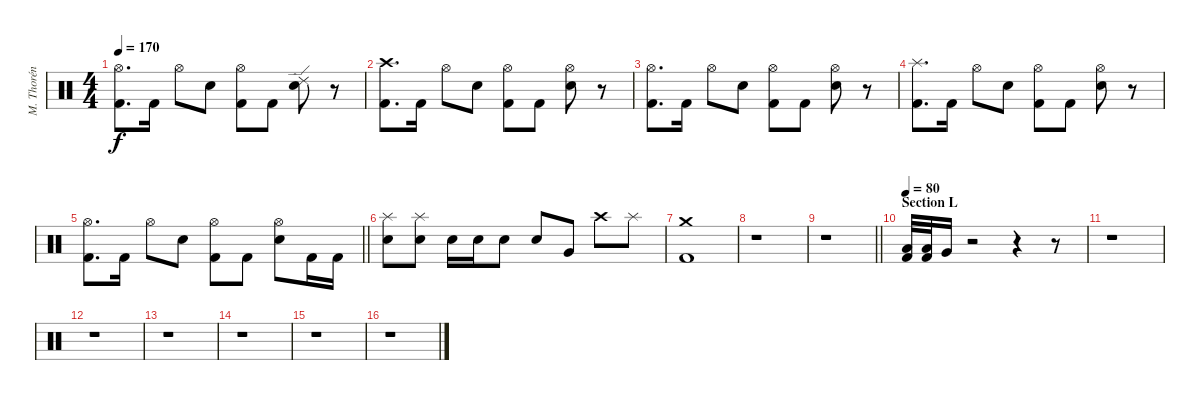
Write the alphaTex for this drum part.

\track ("M. Thorén (Drums)" "M. Thorén ") {instrument percussion}
\staff {score}
\articulation defaults
\ts (4 4)
\tempo 170
\clef neutral
\ks aminor
("Hi-Hat (open)" "Kick (hit) 2").8{d dy f} "Kick (hit) 2".16 "Hi-Hat (open)".8 "Electric Snare (hit)".8 ("Hi-Hat (open)" "Kick (hit) 2").8 "Kick (hit) 2".8 ("Ride (edge) 2" "Electric Snare (hit)").8 r.8 |
("Crash high (hit)" "Kick (hit) 2").8{d} "Kick (hit) 2".16 "Hi-Hat (open)".8 "Electric Snare (hit)".8 ("Hi-Hat (open)" "Kick (hit) 2").8 "Kick (hit) 2".8 ("Hi-Hat (open)" "Electric Snare (hit)").8 r.8 |
("Hi-Hat (open)" "Kick (hit) 2").8{d} "Kick (hit) 2".16 "Hi-Hat (open)".8 "Electric Snare (hit)".8 ("Hi-Hat (open)" "Kick (hit) 2").8 "Kick (hit) 2".8 ("Hi-Hat (open)" "Electric Snare (hit)").8 r.8 |
("Splash (hit)" "Kick (hit) 2").8{d} "Kick (hit) 2".16 "Hi-Hat (open)".8 "Electric Snare (hit)".8 ("Hi-Hat (open)" "Kick (hit) 2").8 "Kick (hit) 2".8 ("Hi-Hat (open)" "Electric Snare (hit)").8 r.8 |
\barLineRight lightlight
("Hi-Hat (open)" "Kick (hit) 2").8{d} "Kick (hit) 2".16 "Hi-Hat (open)".8 "Electric Snare (hit)".8 ("Hi-Hat (open)" "Kick (hit) 2").8 "Kick (hit) 2".8 ("Hi-Hat (open)" "Electric Snare (hit)").8 "Kick (hit) 2".16 "Kick (hit) 2".16 |
("Splash (hit)" "Electric Snare (hit)").8 ("Splash (hit)" "Electric Snare (hit)").8 "Electric Snare (hit)".16 "Electric Snare (hit)".16 "Electric Snare (hit)".8 "Electric Snare (hit)".8 "Very Low Tom (hit)".8 "Crash high (hit)".8 "Splash (hit)".8 |
("Crash medium (hit)" "Kick (hit) 2").1 |
r.1 |
\barLineRight lightlight
r.1 |
\section ("" "Section L")
\tempo 80
("Low Tom (hit)" "Kick (hit) 2").32{volume 10} ("Low Tom (hit)" "Kick (hit) 2").32 "Very Low Tom (hit)".16 r.2 r.4 r.8 |
r.1 |
r.1 |
r.1 |
r.1 |
r.1 |
r.1
